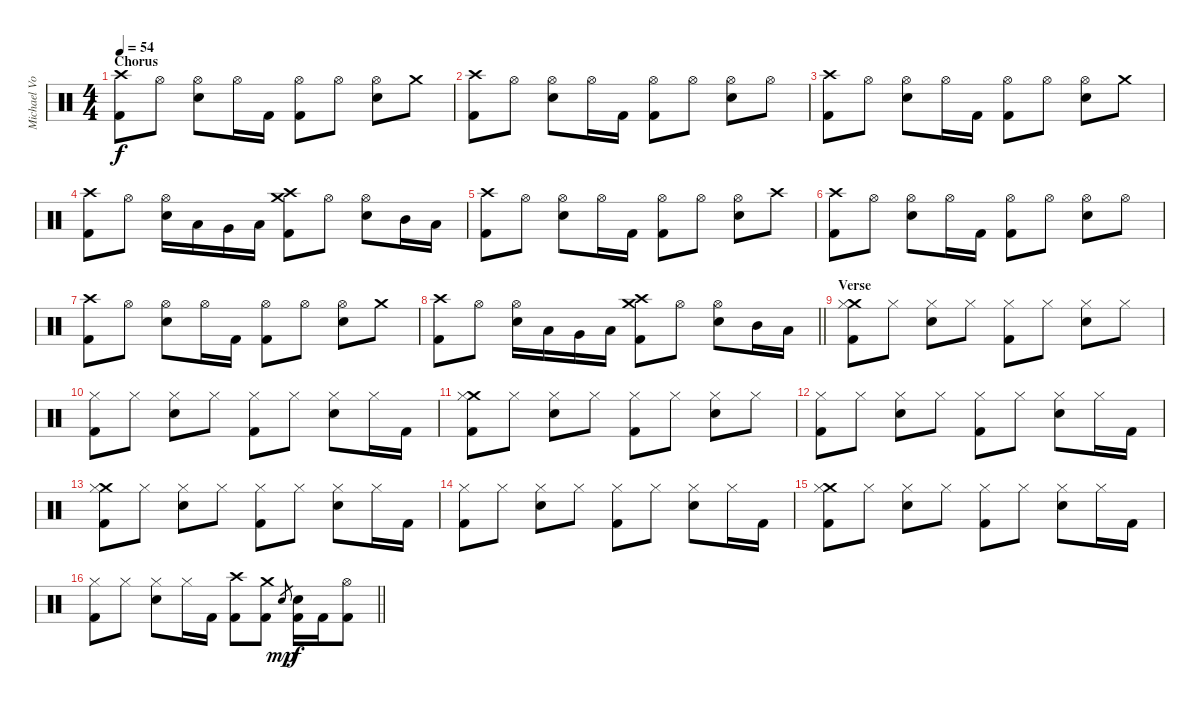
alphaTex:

\track ("Michael Von Knorring" "Michael Vo") {instrument percussion}
\staff {score}
\articulation defaults
\ts (4 4)
\section ("" "Chorus")
\tempo 54
\clef neutral
\ks c
("Crash high (hit)" "Kick (hit) 2").8{dy f} "Hi-Hat (open)".8 ("Hi-Hat (open)" "Electric Snare (hit)").8 "Hi-Hat (open)".16 "Kick (hit) 2".16 ("Hi-Hat (open)" "Kick (hit) 2").8 "Hi-Hat (open)".8 ("Hi-Hat (open)" "Electric Snare (hit)").8 "Crash medium (hit)".8 |
("Crash high (hit)" "Kick (hit) 2").8 "Hi-Hat (open)".8 ("Hi-Hat (open)" "Electric Snare (hit)").8 "Hi-Hat (open)".16 "Kick (hit) 2".16 ("Hi-Hat (open)" "Kick (hit) 2").8 "Hi-Hat (open)".8 ("Hi-Hat (open)" "Electric Snare (hit)").8 "Hi-Hat (open)".8 |
("Crash high (hit)" "Kick (hit) 2").8 "Hi-Hat (open)".8 ("Hi-Hat (open)" "Electric Snare (hit)").8 "Hi-Hat (open)".16 "Kick (hit) 2".16 ("Hi-Hat (open)" "Kick (hit) 2").8 "Hi-Hat (open)".8 ("Hi-Hat (open)" "Electric Snare (hit)").8 "Crash medium (hit)".8 |
("Crash high (hit)" "Kick (hit) 2").8 "Hi-Hat (open)".8 ("Hi-Hat (open)" "Electric Snare (hit)").16 "Low Tom (hit)".16 "Very Low Tom (hit)".16 "Low Floor Tom (hit)".16 ("Crash medium (hit)" "Crash high (hit)" "Kick (hit) 2").8 "Hi-Hat (open)".8 ("Hi-Hat (open)" "Electric Snare (hit)").8 "Mid Tom (hit)".16 "Low Tom (hit)".16 |
("Crash high (hit)" "Kick (hit) 2").8 "Hi-Hat (open)".8 ("Hi-Hat (open)" "Electric Snare (hit)").8 "Hi-Hat (open)".16 "Kick (hit) 2".16 ("Hi-Hat (open)" "Kick (hit) 2").8 "Hi-Hat (open)".8 ("Hi-Hat (open)" "Electric Snare (hit)").8 "Crash high (hit)".8 |
("Crash high (hit)" "Kick (hit) 2").8 "Hi-Hat (open)".8 ("Hi-Hat (open)" "Electric Snare (hit)").8 "Hi-Hat (open)".16 "Kick (hit) 2".16 ("Hi-Hat (open)" "Kick (hit) 2").8 "Hi-Hat (open)".8 ("Hi-Hat (open)" "Electric Snare (hit)").8 "Hi-Hat (open)".8 |
("Crash high (hit)" "Kick (hit) 2").8 "Hi-Hat (open)".8 ("Hi-Hat (open)" "Electric Snare (hit)").8 "Hi-Hat (open)".16 "Kick (hit) 2".16 ("Hi-Hat (open)" "Kick (hit) 2").8 "Hi-Hat (open)".8 ("Hi-Hat (open)" "Electric Snare (hit)").8 "Crash medium (hit)".8 |
\barLineRight lightlight
("Crash high (hit)" "Kick (hit) 2").8 "Hi-Hat (open)".8 ("Hi-Hat (open)" "Electric Snare (hit)").16 "Low Tom (hit)".16 "Very Low Tom (hit)".16 "Low Floor Tom (hit)".16 ("Crash medium (hit)" "Crash high (hit)" "Kick (hit) 2").8 "Hi-Hat (open)".8 ("Hi-Hat (open)" "Electric Snare (hit)").8 "Mid Tom (hit)".16 "Low Tom (hit)".16 |
\section ("" "Verse")
("Crash medium (hit)" "Hi-Hat (closed)" "Kick (hit) 2").8 "Hi-Hat (closed)".8 ("Hi-Hat (closed)" "Snare (hit) 2").8 "Hi-Hat (closed)".8 ("Hi-Hat (closed)" "Kick (hit) 2").8 "Hi-Hat (closed)".8 ("Hi-Hat (closed)" "Snare (hit) 2").8 "Hi-Hat (closed)".8 |
("Hi-Hat (closed)" "Kick (hit) 2").8 "Hi-Hat (closed)".8 ("Hi-Hat (closed)" "Snare (hit) 2").8 "Hi-Hat (closed)".8 ("Hi-Hat (closed)" "Kick (hit) 2").8 "Hi-Hat (closed)".8 ("Hi-Hat (closed)" "Snare (hit) 2").8 "Hi-Hat (closed)".16 "Kick (hit) 2".16 |
("Crash medium (hit)" "Hi-Hat (closed)" "Kick (hit) 2").8 "Hi-Hat (closed)".8 ("Hi-Hat (closed)" "Snare (hit) 2").8 "Hi-Hat (closed)".8 ("Hi-Hat (closed)" "Kick (hit) 2").8 "Hi-Hat (closed)".8 ("Hi-Hat (closed)" "Snare (hit) 2").8 "Hi-Hat (closed)".8 |
("Hi-Hat (closed)" "Kick (hit) 2").8 "Hi-Hat (closed)".8 ("Hi-Hat (closed)" "Snare (hit) 2").8 "Hi-Hat (closed)".8 ("Hi-Hat (closed)" "Kick (hit) 2").8 "Hi-Hat (closed)".8 ("Hi-Hat (closed)" "Snare (hit) 2").8 "Hi-Hat (closed)".16 "Kick (hit) 2".16 |
("Crash medium (hit)" "Hi-Hat (closed)" "Kick (hit) 2").8 "Hi-Hat (closed)".8 ("Hi-Hat (closed)" "Snare (hit) 2").8 "Hi-Hat (closed)".8 ("Hi-Hat (closed)" "Kick (hit) 2").8 "Hi-Hat (closed)".8 ("Hi-Hat (closed)" "Snare (hit) 2").8 "Hi-Hat (closed)".16 "Kick (hit) 2".16 |
("Hi-Hat (closed)" "Kick (hit) 2").8 "Hi-Hat (closed)".8 ("Hi-Hat (closed)" "Snare (hit) 2").8 "Hi-Hat (closed)".8 ("Hi-Hat (closed)" "Kick (hit) 2").8 "Hi-Hat (closed)".8 ("Hi-Hat (closed)" "Snare (hit) 2").8 "Hi-Hat (closed)".16 "Kick (hit) 2".16 |
("Crash medium (hit)" "Hi-Hat (closed)" "Kick (hit) 2").8 "Hi-Hat (closed)".8 ("Hi-Hat (closed)" "Snare (hit) 2").8 "Hi-Hat (closed)".8 ("Hi-Hat (closed)" "Kick (hit) 2").8 "Hi-Hat (closed)".8 ("Hi-Hat (closed)" "Snare (hit) 2").8 "Hi-Hat (closed)".16 "Kick (hit) 2".16 |
\barLineRight lightlight
("Hi-Hat (closed)" "Kick (hit) 2").8 "Hi-Hat (closed)".8 ("Hi-Hat (closed)" "Snare (hit) 2").8 "Hi-Hat (closed)".16 "Kick (hit) 2".16 ("Crash high (hit)" "Kick (hit) 2").8 ("Crash medium (hit)" "Kick (hit) 2").8 "Snare (hit) 2".8{gr dy mp} ("Snare (hit) 2" "Kick (hit) 2").16{dy f} "Kick (hit) 2".16 ("Hi-Hat (open)" "Kick (hit) 2").8
